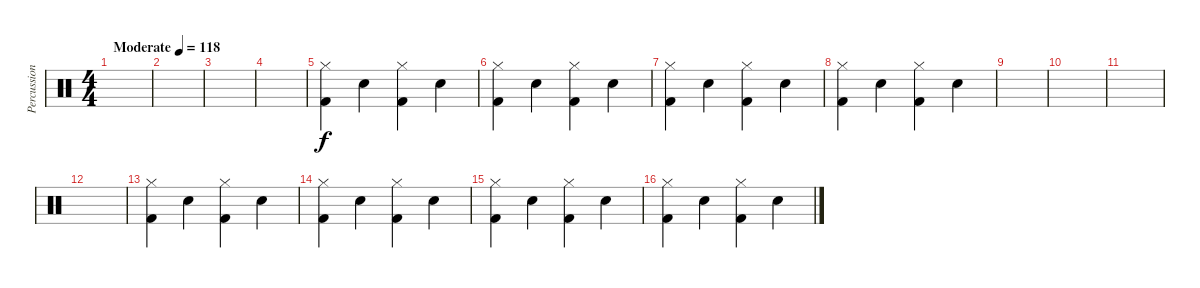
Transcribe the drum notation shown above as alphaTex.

\track ("Percussion" "Percussion") {instrument percussion}
\staff {score}
\articulation defaults
\ts (4 4)
\tempo (118 "Moderate")
\clef neutral
\ks c
|
|
|
|
("Hi-Hat (closed)" "Kick (hit) 2").4 "Snare (hit) 2".4 ("Hi-Hat (closed)" "Kick (hit) 2").4 "Snare (hit) 2".4 |
("Hi-Hat (closed)" "Kick (hit) 2").4 "Snare (hit) 2".4 ("Hi-Hat (closed)" "Kick (hit) 2").4 "Snare (hit) 2".4 |
("Hi-Hat (closed)" "Kick (hit) 2").4 "Snare (hit) 2".4 ("Hi-Hat (closed)" "Kick (hit) 2").4 "Snare (hit) 2".4 |
("Hi-Hat (closed)" "Kick (hit) 2").4 "Snare (hit) 2".4 ("Hi-Hat (closed)" "Kick (hit) 2").4 "Snare (hit) 2".4 |
|
|
|
|
("Hi-Hat (closed)" "Kick (hit) 2").4 "Snare (hit) 2".4 ("Hi-Hat (closed)" "Kick (hit) 2").4 "Snare (hit) 2".4 |
("Hi-Hat (closed)" "Kick (hit) 2").4 "Snare (hit) 2".4 ("Hi-Hat (closed)" "Kick (hit) 2").4 "Snare (hit) 2".4 |
("Hi-Hat (closed)" "Kick (hit) 2").4 "Snare (hit) 2".4 ("Hi-Hat (closed)" "Kick (hit) 2").4 "Snare (hit) 2".4 |
("Hi-Hat (closed)" "Kick (hit) 2").4 "Snare (hit) 2".4 ("Hi-Hat (closed)" "Kick (hit) 2").4 "Snare (hit) 2".4
